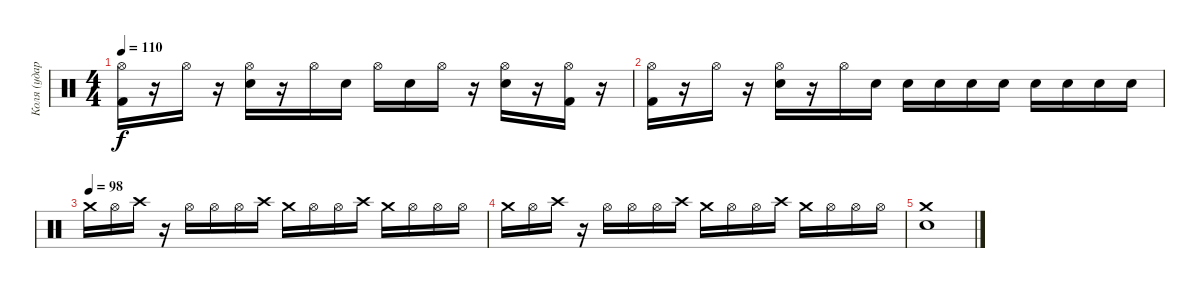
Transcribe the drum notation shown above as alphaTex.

\track ("Коля (ударные)" "Коля (удар") {instrument percussion}
\staff {score}
\articulation defaults
\ts (4 4)
\tempo 110
\clef neutral
\ks c
("Kick (hit) 2" "Hi-Hat (open)").16{dy f} r.16 "Hi-Hat (open)".16 r.16 ("Electric Snare (hit)" "Hi-Hat (open)").16 r.16 "Hi-Hat (open)".16 "Electric Snare (hit)".16 "Hi-Hat (open)".16 "Electric Snare (hit)".16 "Hi-Hat (open)".16 r.16 ("Electric Snare (hit)" "Hi-Hat (open)").16 r.16 ("Kick (hit) 2" "Hi-Hat (open)").16 r.16 |
("Kick (hit) 2" "Hi-Hat (open)").16 r.16 "Hi-Hat (open)".16 r.16 ("Electric Snare (hit)" "Hi-Hat (open)").16 r.16 "Hi-Hat (open)".16 "Electric Snare (hit)".16 "Electric Snare (hit)".16 "Electric Snare (hit)".16 "Electric Snare (hit)".16 "Electric Snare (hit)".16 "Electric Snare (hit)".16 "Electric Snare (hit)".16 "Electric Snare (hit)".16 "Electric Snare (hit)".16 |
\tempo (98)
"Crash medium (hit)".16 "Hi-Hat (open)".16 "Crash high (hit)".16 r.16 "Hi-Hat (open)".16 "Hi-Hat (open)".16 "Hi-Hat (open)".16 "Crash high (hit)".16 "Crash medium (hit)".16 "Hi-Hat (open)".16 "Hi-Hat (open)".16 "Crash high (hit)".16 "Crash medium (hit)".16 "Hi-Hat (open)".16 "Hi-Hat (open)".16 "Hi-Hat (open)".16 |
"Crash medium (hit)".16 "Hi-Hat (open)".16 "Crash high (hit)".16 r.16 "Hi-Hat (open)".16 "Hi-Hat (open)".16 "Hi-Hat (open)".16 "Crash high (hit)".16 "Crash medium (hit)".16 "Hi-Hat (open)".16 "Hi-Hat (open)".16 "Crash high (hit)".16 "Crash medium (hit)".16 "Hi-Hat (open)".16 "Hi-Hat (open)".16 "Hi-Hat (open)".16 |
("Snare (hit) 2" "Crash medium (hit)").1
